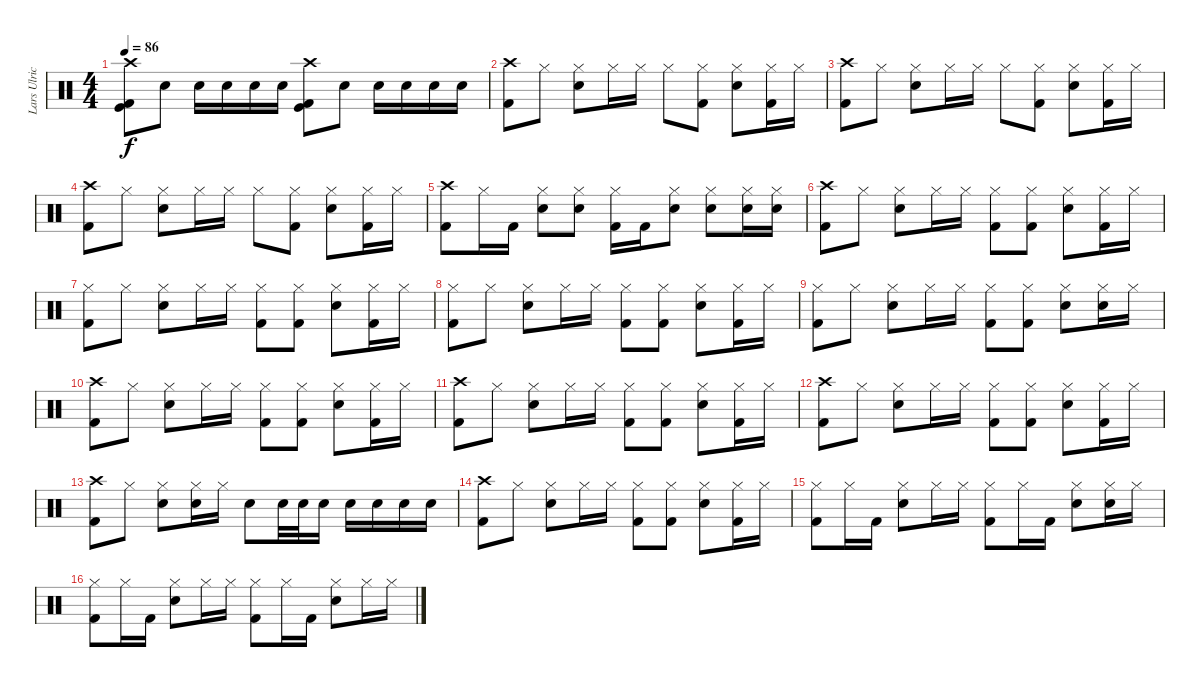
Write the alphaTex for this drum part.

\track ("Lars Ulrich" "Lars Ulric") {instrument percussion}
\staff {score}
\articulation defaults
\ts (4 4)
\tempo 86
\clef neutral
\ks c
("Crash high (hit)" "Kick (hit) 2" "Kick (hit)").8{dy f} "Electric Snare (hit)".8 "Electric Snare (hit)".16 "Electric Snare (hit)".16 "Electric Snare (hit)".16 "Electric Snare (hit)".16 ("Crash high (hit)" "Kick (hit) 2" "Kick (hit)").8 "Electric Snare (hit)".8 "Electric Snare (hit)".16 "Electric Snare (hit)".16 "Electric Snare (hit)".16 "Electric Snare (hit)".16 |
("Crash high (hit)" "Kick (hit) 2").8 "Hi-Hat (closed)".8 ("Hi-Hat (closed)" "Electric Snare (hit)").8 "Hi-Hat (closed)".16 "Hi-Hat (closed)".16 "Hi-Hat (closed)".8 ("Hi-Hat (closed)" "Kick (hit) 2").8 ("Hi-Hat (closed)" "Electric Snare (hit)").8 ("Hi-Hat (closed)" "Kick (hit) 2").16 "Hi-Hat (closed)".16 |
("Crash high (hit)" "Kick (hit) 2").8 "Hi-Hat (closed)".8 ("Hi-Hat (closed)" "Electric Snare (hit)").8 "Hi-Hat (closed)".16 "Hi-Hat (closed)".16 "Hi-Hat (closed)".8 ("Hi-Hat (closed)" "Kick (hit) 2").8 ("Hi-Hat (closed)" "Electric Snare (hit)").8 ("Hi-Hat (closed)" "Kick (hit) 2").16 "Hi-Hat (closed)".16 |
("Crash high (hit)" "Kick (hit) 2").8 "Hi-Hat (closed)".8 ("Hi-Hat (closed)" "Electric Snare (hit)").8 "Hi-Hat (closed)".16 "Hi-Hat (closed)".16 "Hi-Hat (closed)".8 ("Hi-Hat (closed)" "Kick (hit) 2").8 ("Hi-Hat (closed)" "Electric Snare (hit)").8 ("Hi-Hat (closed)" "Kick (hit) 2").16 "Hi-Hat (closed)".16 |
("Crash high (hit)" "Kick (hit) 2").8 "Hi-Hat (closed)".16 "Kick (hit) 2".16 ("Hi-Hat (closed)" "Electric Snare (hit)").8 ("Hi-Hat (closed)" "Electric Snare (hit)").8 ("Hi-Hat (closed)" "Kick (hit) 2").16 "Kick (hit) 2".16 ("Hi-Hat (closed)" "Electric Snare (hit)").8 ("Hi-Hat (closed)" "Electric Snare (hit)").8 ("Hi-Hat (closed)" "Electric Snare (hit)").16 ("Hi-Hat (closed)" "Electric Snare (hit)").16 |
("Crash high (hit)" "Kick (hit) 2").8 "Hi-Hat (closed)".8 ("Hi-Hat (closed)" "Electric Snare (hit)").8 "Hi-Hat (closed)".16 "Hi-Hat (closed)".16 ("Hi-Hat (closed)" "Kick (hit) 2").8 ("Hi-Hat (closed)" "Kick (hit) 2").8 ("Hi-Hat (closed)" "Electric Snare (hit)").8 ("Hi-Hat (closed)" "Kick (hit) 2").16 "Hi-Hat (closed)".16 |
("Hi-Hat (closed)" "Kick (hit) 2").8 "Hi-Hat (closed)".8 ("Hi-Hat (closed)" "Electric Snare (hit)").8 "Hi-Hat (closed)".16 "Hi-Hat (closed)".16 ("Hi-Hat (closed)" "Kick (hit) 2").8 ("Hi-Hat (closed)" "Kick (hit) 2").8 ("Hi-Hat (closed)" "Electric Snare (hit)").8 ("Hi-Hat (closed)" "Kick (hit) 2").16 "Hi-Hat (closed)".16 |
("Hi-Hat (closed)" "Kick (hit) 2").8 "Hi-Hat (closed)".8 ("Hi-Hat (closed)" "Electric Snare (hit)").8 "Hi-Hat (closed)".16 "Hi-Hat (closed)".16 ("Hi-Hat (closed)" "Kick (hit) 2").8 ("Hi-Hat (closed)" "Kick (hit) 2").8 ("Hi-Hat (closed)" "Electric Snare (hit)").8 ("Hi-Hat (closed)" "Kick (hit) 2").16 "Hi-Hat (closed)".16 |
("Hi-Hat (closed)" "Kick (hit) 2").8 "Hi-Hat (closed)".8 ("Hi-Hat (closed)" "Electric Snare (hit)").8 "Hi-Hat (closed)".16 "Hi-Hat (closed)".16 ("Hi-Hat (closed)" "Kick (hit) 2").8 ("Hi-Hat (closed)" "Kick (hit) 2").8 ("Hi-Hat (closed)" "Electric Snare (hit)").8 ("Hi-Hat (closed)" "Electric Snare (hit)").16 "Hi-Hat (closed)".16 |
("Crash high (hit)" "Kick (hit) 2").8 "Hi-Hat (closed)".8 ("Hi-Hat (closed)" "Electric Snare (hit)").8 "Hi-Hat (closed)".16 "Hi-Hat (closed)".16 ("Hi-Hat (closed)" "Kick (hit) 2").8 ("Hi-Hat (closed)" "Kick (hit) 2").8 ("Hi-Hat (closed)" "Electric Snare (hit)").8 ("Hi-Hat (closed)" "Kick (hit) 2").16 "Hi-Hat (closed)".16 |
("Crash high (hit)" "Kick (hit) 2").8 "Hi-Hat (closed)".8 ("Hi-Hat (closed)" "Electric Snare (hit)").8 "Hi-Hat (closed)".16 "Hi-Hat (closed)".16 ("Hi-Hat (closed)" "Kick (hit) 2").8 ("Hi-Hat (closed)" "Kick (hit) 2").8 ("Hi-Hat (closed)" "Electric Snare (hit)").8 ("Hi-Hat (closed)" "Kick (hit) 2").16 "Hi-Hat (closed)".16 |
("Crash high (hit)" "Kick (hit) 2").8 "Hi-Hat (closed)".8 ("Hi-Hat (closed)" "Electric Snare (hit)").8 "Hi-Hat (closed)".16 "Hi-Hat (closed)".16 ("Hi-Hat (closed)" "Kick (hit) 2").8 ("Hi-Hat (closed)" "Kick (hit) 2").8 ("Hi-Hat (closed)" "Electric Snare (hit)").8 ("Hi-Hat (closed)" "Kick (hit) 2").16 "Hi-Hat (closed)".16 |
("Crash high (hit)" "Kick (hit) 2").8 "Hi-Hat (closed)".8 ("Hi-Hat (closed)" "Electric Snare (hit)").8 ("Hi-Hat (closed)" "Electric Snare (hit)").16 "Hi-Hat (closed)".16 "Electric Snare (hit)".8 "Electric Snare (hit)".32 "Electric Snare (hit)".32 "Electric Snare (hit)".16 "Electric Snare (hit)".16 "Electric Snare (hit)".16 "Electric Snare (hit)".16 "Electric Snare (hit)".16 |
("Crash high (hit)" "Kick (hit) 2").8 "Hi-Hat (closed)".8 ("Hi-Hat (closed)" "Electric Snare (hit)").8 "Hi-Hat (closed)".16 "Hi-Hat (closed)".16 ("Hi-Hat (closed)" "Kick (hit) 2").8 ("Hi-Hat (closed)" "Kick (hit) 2").8 ("Hi-Hat (closed)" "Electric Snare (hit)").8 ("Hi-Hat (closed)" "Kick (hit) 2").16 "Hi-Hat (closed)".16 |
("Hi-Hat (closed)" "Kick (hit) 2").8 "Hi-Hat (closed)".16 "Kick (hit) 2".16 ("Hi-Hat (closed)" "Electric Snare (hit)").8 "Hi-Hat (closed)".16 "Hi-Hat (closed)".16 ("Hi-Hat (closed)" "Kick (hit) 2").8 "Hi-Hat (closed)".16 "Kick (hit) 2".16 ("Hi-Hat (closed)" "Electric Snare (hit)").8 ("Hi-Hat (closed)" "Electric Snare (hit)").16 "Hi-Hat (closed)".16 |
("Hi-Hat (closed)" "Kick (hit) 2").8 "Hi-Hat (closed)".16 "Kick (hit) 2".16 ("Hi-Hat (closed)" "Electric Snare (hit)").8 "Hi-Hat (closed)".16 "Hi-Hat (closed)".16 ("Hi-Hat (closed)" "Kick (hit) 2").8 "Hi-Hat (closed)".16 "Kick (hit) 2".16 ("Hi-Hat (closed)" "Electric Snare (hit)").8 "Hi-Hat (closed)".16 "Hi-Hat (closed)".16
